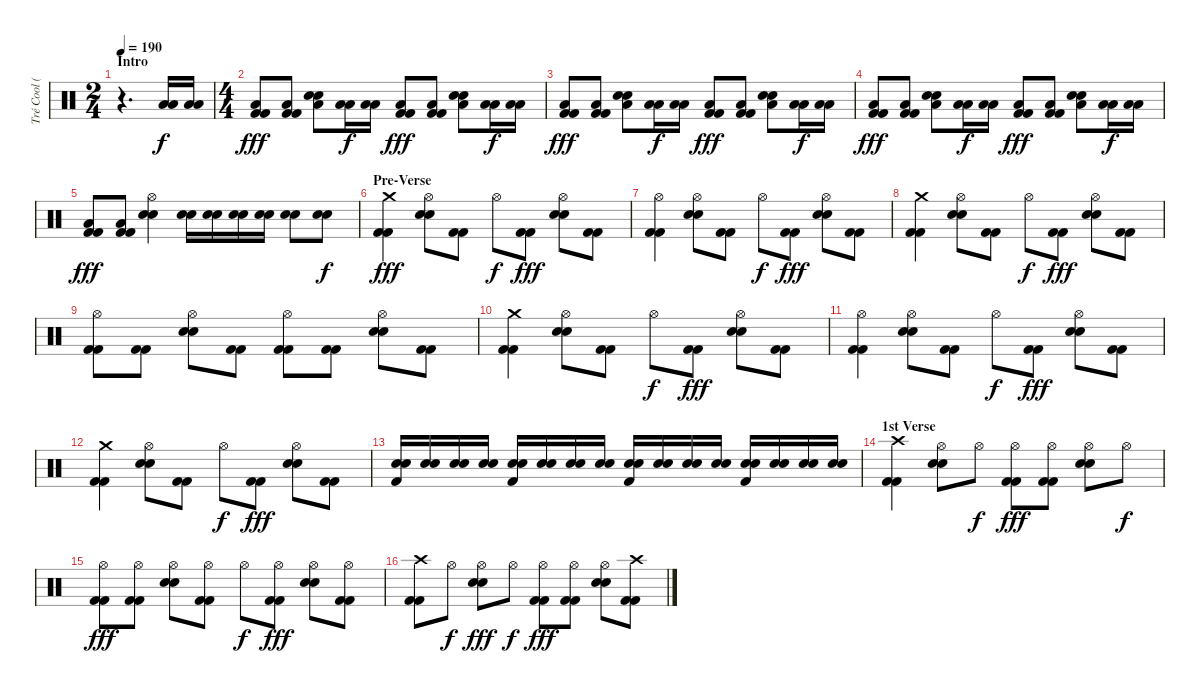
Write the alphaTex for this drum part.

\track ("Tré Cool (Drums)" "Tré Cool (") {instrument percussion}
\staff {score}
\articulation defaults
\ts (2 4)
\section ("" "Intro")
\tempo 190
\clef neutral
\ks c
r.4{d dy f} ("Low Floor Tom (hit)" "Low Floor Tom (hit)").16 ("Low Floor Tom (hit)" "Low Floor Tom (hit)").16 |
\ts (4 4)
("Kick (hit) 2" "Kick (hit) 2" "Low Floor Tom (hit)").8{dy fff} ("Kick (hit) 2" "Kick (hit) 2" "Low Floor Tom (hit)").8 ("Electric Snare (hit)" "Electric Snare (hit)" "Low Floor Tom (hit)").8 ("Low Floor Tom (hit)" "Low Floor Tom (hit)").16{dy f} ("Low Floor Tom (hit)" "Low Floor Tom (hit)").16 ("Kick (hit) 2" "Kick (hit) 2" "Low Floor Tom (hit)").8{dy fff} ("Kick (hit) 2" "Kick (hit) 2" "Low Floor Tom (hit)").8 ("Electric Snare (hit)" "Electric Snare (hit)" "Low Floor Tom (hit)").8 ("Low Floor Tom (hit)" "Low Floor Tom (hit)").16{dy f} ("Low Floor Tom (hit)" "Low Floor Tom (hit)").16 |
("Kick (hit) 2" "Kick (hit) 2" "Low Floor Tom (hit)").8{dy fff} ("Kick (hit) 2" "Kick (hit) 2" "Low Floor Tom (hit)").8 ("Electric Snare (hit)" "Electric Snare (hit)" "Low Floor Tom (hit)").8 ("Low Floor Tom (hit)" "Low Floor Tom (hit)").16{dy f} ("Low Floor Tom (hit)" "Low Floor Tom (hit)").16 ("Kick (hit) 2" "Kick (hit) 2" "Low Floor Tom (hit)").8{dy fff} ("Kick (hit) 2" "Kick (hit) 2" "Low Floor Tom (hit)").8 ("Electric Snare (hit)" "Electric Snare (hit)" "Low Floor Tom (hit)").8 ("Low Floor Tom (hit)" "Low Floor Tom (hit)").16{dy f} ("Low Floor Tom (hit)" "Low Floor Tom (hit)").16 |
("Kick (hit) 2" "Kick (hit) 2" "Low Floor Tom (hit)").8{dy fff} ("Kick (hit) 2" "Kick (hit) 2" "Low Floor Tom (hit)").8 ("Electric Snare (hit)" "Electric Snare (hit)" "Low Floor Tom (hit)").8 ("Low Floor Tom (hit)" "Low Floor Tom (hit)").16{dy f} ("Low Floor Tom (hit)" "Low Floor Tom (hit)").16 ("Kick (hit) 2" "Kick (hit) 2" "Low Floor Tom (hit)").8{dy fff} ("Kick (hit) 2" "Kick (hit) 2" "Low Floor Tom (hit)").8 ("Electric Snare (hit)" "Electric Snare (hit)" "Low Floor Tom (hit)").8 ("Low Floor Tom (hit)" "Low Floor Tom (hit)").16{dy f} ("Low Floor Tom (hit)" "Low Floor Tom (hit)").16 |
("Kick (hit) 2" "Kick (hit) 2" "Low Floor Tom (hit)").8{dy fff} ("Kick (hit) 2" "Kick (hit) 2" "Low Floor Tom (hit)").8 ("Electric Snare (hit)" "Electric Snare (hit)" "Hi-Hat (open)").4 ("Electric Snare (hit)" "Electric Snare (hit)").16 ("Electric Snare (hit)" "Electric Snare (hit)").16 ("Electric Snare (hit)" "Electric Snare (hit)").16 ("Electric Snare (hit)" "Electric Snare (hit)").16 ("Electric Snare (hit)" "Electric Snare (hit)").8 ("Electric Snare (hit)" "Electric Snare (hit)").8{dy f} |
\section ("" "Pre-Verse")
("Kick (hit) 2" "Kick (hit) 2" "Crash medium (hit)").4{dy fff} ("Electric Snare (hit)" "Electric Snare (hit)" "Hi-Hat (open)").8 ("Kick (hit) 2" "Kick (hit) 2").8 "Hi-Hat (open)".8{dy f} ("Kick (hit) 2" "Kick (hit) 2").8{dy fff} ("Electric Snare (hit)" "Electric Snare (hit)" "Hi-Hat (open)").8 ("Kick (hit) 2" "Kick (hit) 2").8 |
("Kick (hit) 2" "Kick (hit) 2" "Hi-Hat (open)").4 ("Electric Snare (hit)" "Electric Snare (hit)" "Hi-Hat (open)").8 ("Kick (hit) 2" "Kick (hit) 2").8 "Hi-Hat (open)".8{dy f} ("Kick (hit) 2" "Kick (hit) 2").8{dy fff} ("Electric Snare (hit)" "Electric Snare (hit)" "Hi-Hat (open)").8 ("Kick (hit) 2" "Kick (hit) 2").8 |
("Kick (hit) 2" "Kick (hit) 2" "Crash medium (hit)").4 ("Electric Snare (hit)" "Electric Snare (hit)" "Hi-Hat (open)").8 ("Kick (hit) 2" "Kick (hit) 2").8 "Hi-Hat (open)".8{dy f} ("Kick (hit) 2" "Kick (hit) 2").8{dy fff} ("Electric Snare (hit)" "Electric Snare (hit)" "Hi-Hat (open)").8 ("Kick (hit) 2" "Kick (hit) 2").8 |
("Kick (hit) 2" "Kick (hit) 2" "Hi-Hat (open)").8 ("Kick (hit) 2" "Kick (hit) 2").8 ("Electric Snare (hit)" "Electric Snare (hit)" "Hi-Hat (open)").8 ("Kick (hit) 2" "Kick (hit) 2").8 ("Kick (hit) 2" "Kick (hit) 2" "Hi-Hat (open)").8 ("Kick (hit) 2" "Kick (hit) 2").8 ("Electric Snare (hit)" "Electric Snare (hit)" "Hi-Hat (open)").8 ("Kick (hit) 2" "Kick (hit) 2").8 |
("Kick (hit) 2" "Kick (hit) 2" "Crash medium (hit)").4 ("Electric Snare (hit)" "Electric Snare (hit)" "Hi-Hat (open)").8 ("Kick (hit) 2" "Kick (hit) 2").8 "Hi-Hat (open)".8{dy f} ("Kick (hit) 2" "Kick (hit) 2").8{dy fff} ("Electric Snare (hit)" "Electric Snare (hit)" "Hi-Hat (open)").8 ("Kick (hit) 2" "Kick (hit) 2").8 |
("Kick (hit) 2" "Kick (hit) 2" "Hi-Hat (open)").4 ("Electric Snare (hit)" "Electric Snare (hit)" "Hi-Hat (open)").8 ("Kick (hit) 2" "Kick (hit) 2").8 "Hi-Hat (open)".8{dy f} ("Kick (hit) 2" "Kick (hit) 2").8{dy fff} ("Electric Snare (hit)" "Electric Snare (hit)" "Hi-Hat (open)").8 ("Kick (hit) 2" "Kick (hit) 2").8 |
("Kick (hit) 2" "Kick (hit) 2" "Crash medium (hit)").4 ("Electric Snare (hit)" "Electric Snare (hit)" "Hi-Hat (open)").8 ("Kick (hit) 2" "Kick (hit) 2").8 "Hi-Hat (open)".8{dy f} ("Kick (hit) 2" "Kick (hit) 2").8{dy fff} ("Electric Snare (hit)" "Electric Snare (hit)" "Hi-Hat (open)").8 ("Kick (hit) 2" "Kick (hit) 2").8 |
("Electric Snare (hit)" "Electric Snare (hit)" "Kick (hit) 2").16 ("Electric Snare (hit)" "Electric Snare (hit)").16 ("Electric Snare (hit)" "Electric Snare (hit)").16 ("Electric Snare (hit)" "Electric Snare (hit)").16 ("Electric Snare (hit)" "Electric Snare (hit)" "Kick (hit) 2").16 ("Electric Snare (hit)" "Electric Snare (hit)").16 ("Electric Snare (hit)" "Electric Snare (hit)").16 ("Electric Snare (hit)" "Electric Snare (hit)").16 ("Electric Snare (hit)" "Electric Snare (hit)" "Kick (hit) 2").16 ("Electric Snare (hit)" "Electric Snare (hit)").16 ("Electric Snare (hit)" "Electric Snare (hit)").16 ("Electric Snare (hit)" "Electric Snare (hit)").16 ("Electric Snare (hit)" "Electric Snare (hit)" "Kick (hit) 2").16 ("Electric Snare (hit)" "Electric Snare (hit)").16 ("Electric Snare (hit)" "Electric Snare (hit)").16 ("Electric Snare (hit)" "Electric Snare (hit)").16 |
\section ("" "1st Verse")
("Kick (hit) 2" "Kick (hit) 2" "Crash high (hit)").4 ("Electric Snare (hit)" "Electric Snare (hit)" "Hi-Hat (open)").8 "Hi-Hat (open)".8{dy f} ("Kick (hit) 2" "Kick (hit) 2" "Hi-Hat (open)").8{dy fff} ("Kick (hit) 2" "Kick (hit) 2" "Hi-Hat (open)").8 ("Electric Snare (hit)" "Electric Snare (hit)" "Hi-Hat (open)").8 "Hi-Hat (open)".8{dy f} |
("Kick (hit) 2" "Kick (hit) 2" "Hi-Hat (open)").8{dy fff} ("Kick (hit) 2" "Kick (hit) 2" "Hi-Hat (open)").8 ("Electric Snare (hit)" "Electric Snare (hit)" "Hi-Hat (open)").8 ("Kick (hit) 2" "Kick (hit) 2" "Hi-Hat (open)").8 "Hi-Hat (open)".8{dy f} ("Kick (hit) 2" "Kick (hit) 2" "Hi-Hat (open)").8{dy fff} ("Electric Snare (hit)" "Electric Snare (hit)" "Hi-Hat (open)").8 ("Kick (hit) 2" "Kick (hit) 2" "Hi-Hat (open)").8 |
("Kick (hit) 2" "Kick (hit) 2" "Crash high (hit)").8 "Hi-Hat (open)".8{dy f} ("Electric Snare (hit)" "Electric Snare (hit)" "Hi-Hat (open)").8{dy fff} "Hi-Hat (open)".8{dy f} ("Kick (hit) 2" "Kick (hit) 2" "Hi-Hat (open)").8{dy fff} ("Kick (hit) 2" "Kick (hit) 2" "Hi-Hat (open)").8 ("Electric Snare (hit)" "Electric Snare (hit)" "Hi-Hat (open)").8 ("Kick (hit) 2" "Kick (hit) 2" "Crash high (hit)").8
